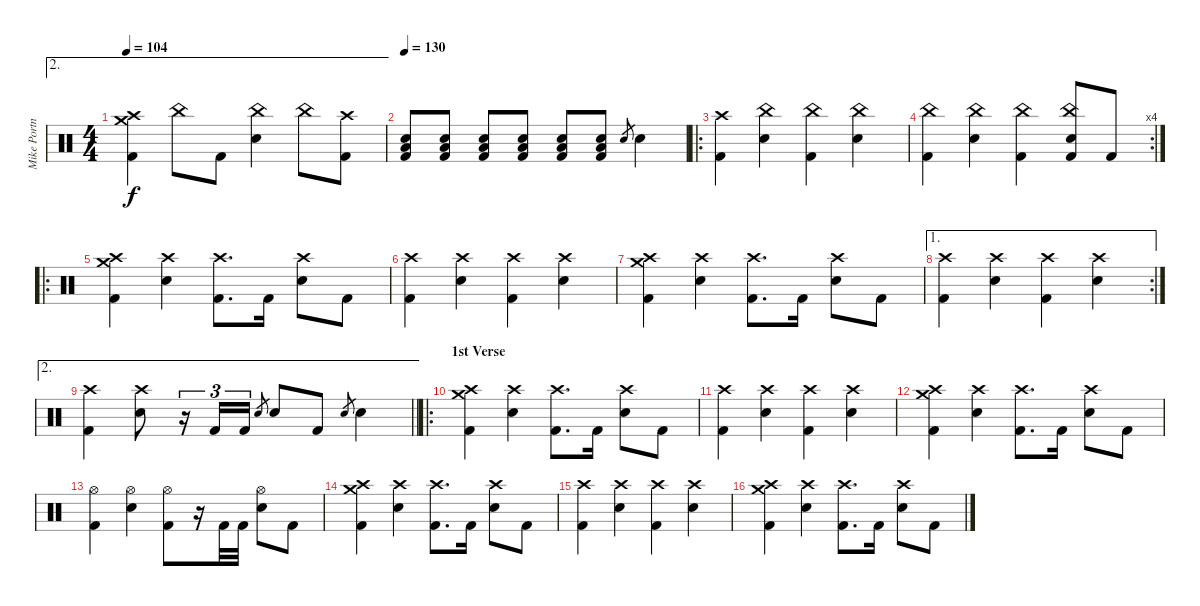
\track ("Mike Portnoy" "Mike Portn") {instrument percussion}
\staff {score}
\articulation defaults
\ae 2
\ts (4 4)
\tempo 104
\clef neutral
\ks c
("Crash medium (hit)" "Crash high (hit)" "Kick (hit) 2").4{dy f} "China (hit)".8 "Kick (hit) 2".8 ("China (hit)" "Electric Snare (hit)").4 "China (hit)".8 ("Crash high (hit)" "Kick (hit) 2").8 |
\tempo 130
("Electric Snare (hit)" "Low Floor Tom (hit)" "Kick (hit) 2").8 ("Electric Snare (hit)" "Low Floor Tom (hit)" "Kick (hit) 2").8 ("Electric Snare (hit)" "Low Floor Tom (hit)" "Kick (hit) 2").8 ("Electric Snare (hit)" "Low Floor Tom (hit)" "Kick (hit) 2").8 ("Electric Snare (hit)" "Low Floor Tom (hit)" "Kick (hit) 2").8 ("Electric Snare (hit)" "Low Floor Tom (hit)" "Kick (hit) 2").8 "Electric Snare (hit)".8{gr} "Electric Snare (hit)".4 |
\ro
("Crash high (hit)" "Kick (hit) 2").4 ("China (hit)" "Electric Snare (hit)").4 ("China (hit)" "Kick (hit) 2").4 ("China (hit)" "Electric Snare (hit)").4 |
\rc 4
("China (hit)" "Kick (hit) 2").4 ("China (hit)" "Electric Snare (hit)").4 ("China (hit)" "Kick (hit) 2").4 ("China (hit)" "Electric Snare (hit)" "Kick (hit) 2").8 "Kick (hit) 2".8 |
\ro
("Crash high (hit)" "Crash medium (hit)" "Kick (hit) 2").4 ("Crash high (hit)" "Electric Snare (hit)").4 ("Crash high (hit)" "Kick (hit) 2").8{d} "Kick (hit) 2".16 ("Crash high (hit)" "Electric Snare (hit)").8 "Kick (hit) 2".8 |
("Crash high (hit)" "Kick (hit) 2").4 ("Crash high (hit)" "Electric Snare (hit)").4 ("Crash high (hit)" "Kick (hit) 2").4 ("Crash high (hit)" "Electric Snare (hit)").4 |
("Crash high (hit)" "Crash medium (hit)" "Kick (hit) 2").4 ("Crash high (hit)" "Electric Snare (hit)").4 ("Crash high (hit)" "Kick (hit) 2").8{d} "Kick (hit) 2".16 ("Crash high (hit)" "Electric Snare (hit)").8 "Kick (hit) 2".8 |
\ae 1
\rc 2
("Crash high (hit)" "Kick (hit) 2").4 ("Crash high (hit)" "Electric Snare (hit)").4 ("Crash high (hit)" "Kick (hit) 2").4 ("Crash high (hit)" "Electric Snare (hit)").4 |
\ae 2
\barLineRight lightlight
("Crash high (hit)" "Kick (hit) 2").4 ("Crash high (hit)" "Electric Snare (hit)").8 r.16{tu (3 2)} "Kick (hit) 2".16{tu (3 2)} "Kick (hit) 2".16{tu (3 2)} "Electric Snare (hit)".8{gr} "Snare (hit) 2".8 "Kick (hit) 2".8 "Electric Snare (hit)".8{gr} "Snare (hit) 2".4 |
\ro
\section ("" "1st Verse")
("Crash high (hit)" "Crash medium (hit)" "Kick (hit) 2").4 ("Crash high (hit)" "Electric Snare (hit)").4 ("Crash high (hit)" "Kick (hit) 2").8{d} "Kick (hit) 2".16 ("Crash high (hit)" "Electric Snare (hit)").8 "Kick (hit) 2".8 |
("Crash high (hit)" "Kick (hit) 2").4 ("Crash high (hit)" "Electric Snare (hit)").4 ("Crash high (hit)" "Kick (hit) 2").4 ("Crash high (hit)" "Electric Snare (hit)").4 |
("Crash high (hit)" "Crash medium (hit)" "Kick (hit) 2").4 ("Crash high (hit)" "Electric Snare (hit)").4 ("Crash high (hit)" "Kick (hit) 2").8{d} "Kick (hit) 2".16 ("Crash high (hit)" "Electric Snare (hit)").8 "Kick (hit) 2".8 |
("Hi-Hat (open)" "Kick (hit) 2").4 ("Hi-Hat (open)" "Electric Snare (hit)").4 ("Hi-Hat (open)" "Kick (hit) 2").8 r.16 "Kick (hit) 2".32 "Kick (hit) 2".32 ("Hi-Hat (open)" "Electric Snare (hit)").8 "Kick (hit) 2".8 |
("Crash high (hit)" "Crash medium (hit)" "Kick (hit) 2").4 ("Crash high (hit)" "Electric Snare (hit)").4 ("Crash high (hit)" "Kick (hit) 2").8{d} "Kick (hit) 2".16 ("Crash high (hit)" "Electric Snare (hit)").8 "Kick (hit) 2".8 |
("Crash high (hit)" "Kick (hit) 2").4 ("Crash high (hit)" "Electric Snare (hit)").4 ("Crash high (hit)" "Kick (hit) 2").4 ("Crash high (hit)" "Electric Snare (hit)").4 |
("Crash high (hit)" "Crash medium (hit)" "Kick (hit) 2").4 ("Crash high (hit)" "Electric Snare (hit)").4 ("Crash high (hit)" "Kick (hit) 2").8{d} "Kick (hit) 2".16 ("Crash high (hit)" "Electric Snare (hit)").8 "Kick (hit) 2".8
